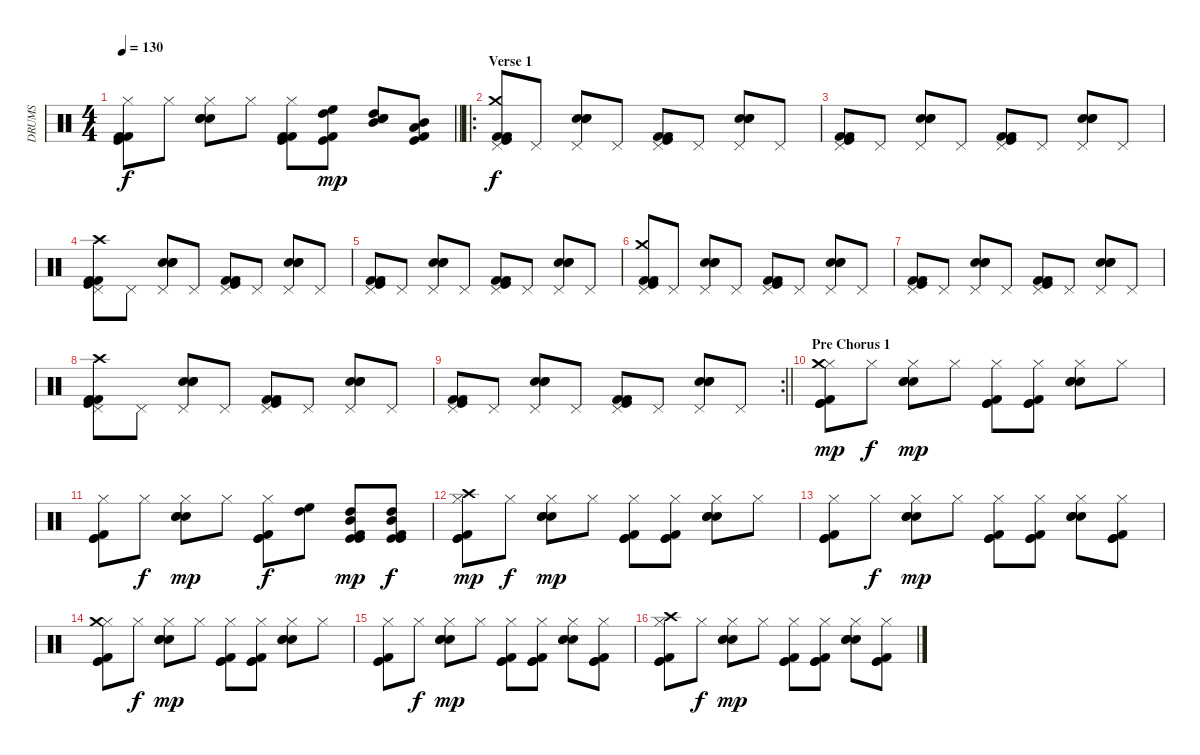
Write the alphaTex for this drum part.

\track ("DRUMS" "DRUMS") {instrument percussion}
\staff {score}
\articulation defaults
\ts (4 4)
\tempo 130
\clef neutral
\barLineRight lightlight
\ks c
("Hi-Hat (closed)" "Kick (hit) 2" "Kick (hit)" "Kick (hit) 2").8{dy f} "Hi-Hat (closed)".8 ("Hi-Hat (closed)" "Snare (hit) 2" "Electric Snare (hit)" "Snare (hit) 2").8 "Hi-Hat (closed)".8 ("Hi-Hat (closed)" "Kick (hit) 2" "Kick (hit)" "Kick (hit) 2").8 ("Kick (hit) 2" "Kick (hit)" "High Floor Tom (hit)" "High Tom (hit)").8{dy mp volume 10} ("Snare (hit) 2" "Electric Snare (hit)" "High Tom (hit)" "Mid Tom (hit)").8 ("Kick (hit) 2" "Kick (hit)" "Mid Tom (hit)" "Low Tom (hit)").8 |
\ro
\section ("" "Verse 1")
("Crash medium (hit)" "Pedal Hi-Hat (hit)" "Kick (hit) 2" "Kick (hit)" "Kick (hit) 2").8{dy f volume 8} "Pedal Hi-Hat (hit)".8 ("Pedal Hi-Hat (hit)" "Snare (hit) 2" "Electric Snare (hit)" "Snare (hit) 2").8 "Pedal Hi-Hat (hit)".8 ("Pedal Hi-Hat (hit)" "Kick (hit) 2" "Kick (hit)" "Kick (hit) 2").8 "Pedal Hi-Hat (hit)".8 ("Pedal Hi-Hat (hit)" "Snare (hit) 2" "Electric Snare (hit)" "Snare (hit) 2").8 "Pedal Hi-Hat (hit)".8 |
("Pedal Hi-Hat (hit)" "Kick (hit) 2" "Kick (hit)" "Kick (hit) 2").8 "Pedal Hi-Hat (hit)".8 ("Pedal Hi-Hat (hit)" "Snare (hit) 2" "Electric Snare (hit)" "Snare (hit) 2").8 "Pedal Hi-Hat (hit)".8 ("Pedal Hi-Hat (hit)" "Kick (hit) 2" "Kick (hit)" "Kick (hit) 2").8 "Pedal Hi-Hat (hit)".8 ("Pedal Hi-Hat (hit)" "Snare (hit) 2" "Electric Snare (hit)" "Snare (hit) 2").8 "Pedal Hi-Hat (hit)".8 |
("Crash high (hit)" "Pedal Hi-Hat (hit)" "Kick (hit) 2" "Kick (hit)" "Kick (hit) 2").8 "Pedal Hi-Hat (hit)".8 ("Pedal Hi-Hat (hit)" "Snare (hit) 2" "Electric Snare (hit)" "Snare (hit) 2").8 "Pedal Hi-Hat (hit)".8 ("Pedal Hi-Hat (hit)" "Kick (hit) 2" "Kick (hit)" "Kick (hit) 2").8 "Pedal Hi-Hat (hit)".8 ("Pedal Hi-Hat (hit)" "Snare (hit) 2" "Electric Snare (hit)" "Snare (hit) 2").8 "Pedal Hi-Hat (hit)".8 |
("Pedal Hi-Hat (hit)" "Kick (hit) 2" "Kick (hit)" "Kick (hit) 2").8 "Pedal Hi-Hat (hit)".8 ("Pedal Hi-Hat (hit)" "Snare (hit) 2" "Electric Snare (hit)" "Snare (hit) 2").8 "Pedal Hi-Hat (hit)".8 ("Pedal Hi-Hat (hit)" "Kick (hit) 2" "Kick (hit)" "Kick (hit) 2").8 "Pedal Hi-Hat (hit)".8 ("Pedal Hi-Hat (hit)" "Snare (hit) 2" "Electric Snare (hit)" "Snare (hit) 2").8 "Pedal Hi-Hat (hit)".8 |
("Crash medium (hit)" "Pedal Hi-Hat (hit)" "Kick (hit) 2" "Kick (hit)" "Kick (hit) 2").8 "Pedal Hi-Hat (hit)".8 ("Pedal Hi-Hat (hit)" "Snare (hit) 2" "Electric Snare (hit)" "Snare (hit) 2").8 "Pedal Hi-Hat (hit)".8 ("Pedal Hi-Hat (hit)" "Kick (hit) 2" "Kick (hit)" "Kick (hit) 2").8 "Pedal Hi-Hat (hit)".8 ("Pedal Hi-Hat (hit)" "Snare (hit) 2" "Electric Snare (hit)" "Snare (hit) 2").8 "Pedal Hi-Hat (hit)".8 |
("Pedal Hi-Hat (hit)" "Kick (hit) 2" "Kick (hit)" "Kick (hit) 2").8 "Pedal Hi-Hat (hit)".8 ("Pedal Hi-Hat (hit)" "Snare (hit) 2" "Electric Snare (hit)" "Snare (hit) 2").8 "Pedal Hi-Hat (hit)".8 ("Pedal Hi-Hat (hit)" "Kick (hit) 2" "Kick (hit)" "Kick (hit) 2").8 "Pedal Hi-Hat (hit)".8 ("Pedal Hi-Hat (hit)" "Snare (hit) 2" "Electric Snare (hit)" "Snare (hit) 2").8 "Pedal Hi-Hat (hit)".8 |
("Crash high (hit)" "Pedal Hi-Hat (hit)" "Kick (hit) 2" "Kick (hit)" "Kick (hit) 2").8 "Pedal Hi-Hat (hit)".8 ("Pedal Hi-Hat (hit)" "Snare (hit) 2" "Electric Snare (hit)" "Snare (hit) 2").8 "Pedal Hi-Hat (hit)".8 ("Pedal Hi-Hat (hit)" "Kick (hit) 2" "Kick (hit)" "Kick (hit) 2").8 "Pedal Hi-Hat (hit)".8 ("Pedal Hi-Hat (hit)" "Snare (hit) 2" "Electric Snare (hit)" "Snare (hit) 2").8 "Pedal Hi-Hat (hit)".8 |
\rc 2
\barLineRight lightlight
("Pedal Hi-Hat (hit)" "Kick (hit) 2" "Kick (hit)" "Kick (hit) 2").8 "Pedal Hi-Hat (hit)".8 ("Pedal Hi-Hat (hit)" "Snare (hit) 2" "Electric Snare (hit)" "Snare (hit) 2").8 "Pedal Hi-Hat (hit)".8 ("Pedal Hi-Hat (hit)" "Kick (hit) 2" "Kick (hit)" "Kick (hit) 2").8 "Pedal Hi-Hat (hit)".8 ("Pedal Hi-Hat (hit)" "Snare (hit) 2" "Electric Snare (hit)" "Snare (hit) 2").8 "Pedal Hi-Hat (hit)".8 |
\section ("" "Pre Chorus 1")
("Hi-Hat (closed)" "Kick (hit) 2" "Kick (hit)" "Kick (hit)" "Crash medium (hit)").8{dy mp} "Hi-Hat (closed)".8{dy f} ("Hi-Hat (closed)" "Electric Snare (hit)" "Snare (hit) 2" "Snare (hit) 2").8{dy mp} "Hi-Hat (closed)".8 ("Hi-Hat (closed)" "Kick (hit) 2" "Kick (hit)" "Kick (hit)").8 ("Hi-Hat (closed)" "Kick (hit) 2" "Kick (hit)" "Kick (hit)").8 ("Hi-Hat (closed)" "Electric Snare (hit)" "Snare (hit) 2" "Snare (hit) 2").8 "Hi-Hat (closed)".8 |
("Hi-Hat (closed)" "Kick (hit) 2" "Kick (hit)" "Kick (hit)").8 "Hi-Hat (closed)".8{dy f} ("Hi-Hat (closed)" "Electric Snare (hit)" "Snare (hit) 2" "Snare (hit) 2").8{dy mp} "Hi-Hat (closed)".8 ("Hi-Hat (closed)" "Kick (hit) 2" "Kick (hit)" "Kick (hit)").8{dy f} ("High Floor Tom (hit)" "High Tom (hit)").8 ("Kick (hit) 2" "Kick (hit)" "Kick (hit)" "High Tom (hit)" "Mid Tom (hit)").8{dy mp} ("Kick (hit) 2" "Kick (hit)" "Kick (hit)" "High Tom (hit)" "Mid Tom (hit)").8{dy f} |
("Hi-Hat (closed)" "Kick (hit) 2" "Kick (hit)" "Kick (hit)" "Crash high (hit)").8{dy mp} "Hi-Hat (closed)".8{dy f} ("Hi-Hat (closed)" "Electric Snare (hit)" "Snare (hit) 2" "Snare (hit) 2").8{dy mp} "Hi-Hat (closed)".8 ("Hi-Hat (closed)" "Kick (hit) 2" "Kick (hit)" "Kick (hit)").8 ("Hi-Hat (closed)" "Kick (hit) 2" "Kick (hit)" "Kick (hit)").8 ("Hi-Hat (closed)" "Electric Snare (hit)" "Snare (hit) 2" "Snare (hit) 2").8 "Hi-Hat (closed)".8 |
("Hi-Hat (closed)" "Kick (hit) 2" "Kick (hit)" "Kick (hit)").8 "Hi-Hat (closed)".8{dy f} ("Hi-Hat (closed)" "Electric Snare (hit)" "Snare (hit) 2" "Snare (hit) 2").8{dy mp} "Hi-Hat (closed)".8 ("Hi-Hat (closed)" "Kick (hit) 2" "Kick (hit)" "Kick (hit)").8 ("Hi-Hat (closed)" "Kick (hit) 2" "Kick (hit)" "Kick (hit)").8 ("Hi-Hat (closed)" "Electric Snare (hit)" "Snare (hit) 2" "Snare (hit) 2").8 ("Hi-Hat (closed)" "Kick (hit) 2" "Kick (hit)" "Kick (hit)").8 |
("Hi-Hat (closed)" "Kick (hit) 2" "Kick (hit)" "Kick (hit)" "Crash medium (hit)").8 "Hi-Hat (closed)".8{dy f} ("Hi-Hat (closed)" "Electric Snare (hit)" "Snare (hit) 2" "Snare (hit) 2").8{dy mp} "Hi-Hat (closed)".8 ("Hi-Hat (closed)" "Kick (hit) 2" "Kick (hit)" "Kick (hit)").8 ("Hi-Hat (closed)" "Kick (hit) 2" "Kick (hit)" "Kick (hit)").8 ("Hi-Hat (closed)" "Electric Snare (hit)" "Snare (hit) 2" "Snare (hit) 2").8 "Hi-Hat (closed)".8 |
("Hi-Hat (closed)" "Kick (hit) 2" "Kick (hit)" "Kick (hit)").8 "Hi-Hat (closed)".8{dy f} ("Hi-Hat (closed)" "Electric Snare (hit)" "Snare (hit) 2" "Snare (hit) 2").8{dy mp} "Hi-Hat (closed)".8 ("Hi-Hat (closed)" "Kick (hit) 2" "Kick (hit)" "Kick (hit)").8 ("Hi-Hat (closed)" "Kick (hit) 2" "Kick (hit)" "Kick (hit)").8 ("Hi-Hat (closed)" "Electric Snare (hit)" "Snare (hit) 2" "Snare (hit) 2").8 ("Hi-Hat (closed)" "Kick (hit) 2" "Kick (hit)" "Kick (hit)").8 |
("Hi-Hat (closed)" "Kick (hit) 2" "Kick (hit)" "Kick (hit)" "Crash high (hit)").8 "Hi-Hat (closed)".8{dy f} ("Hi-Hat (closed)" "Electric Snare (hit)" "Snare (hit) 2" "Snare (hit) 2").8{dy mp} "Hi-Hat (closed)".8 ("Hi-Hat (closed)" "Kick (hit) 2" "Kick (hit)" "Kick (hit)").8 ("Hi-Hat (closed)" "Kick (hit) 2" "Kick (hit)" "Kick (hit)").8 ("Hi-Hat (closed)" "Electric Snare (hit)" "Snare (hit) 2" "Snare (hit) 2").8 ("Hi-Hat (closed)" "Kick (hit) 2" "Kick (hit)" "Kick (hit)").8
